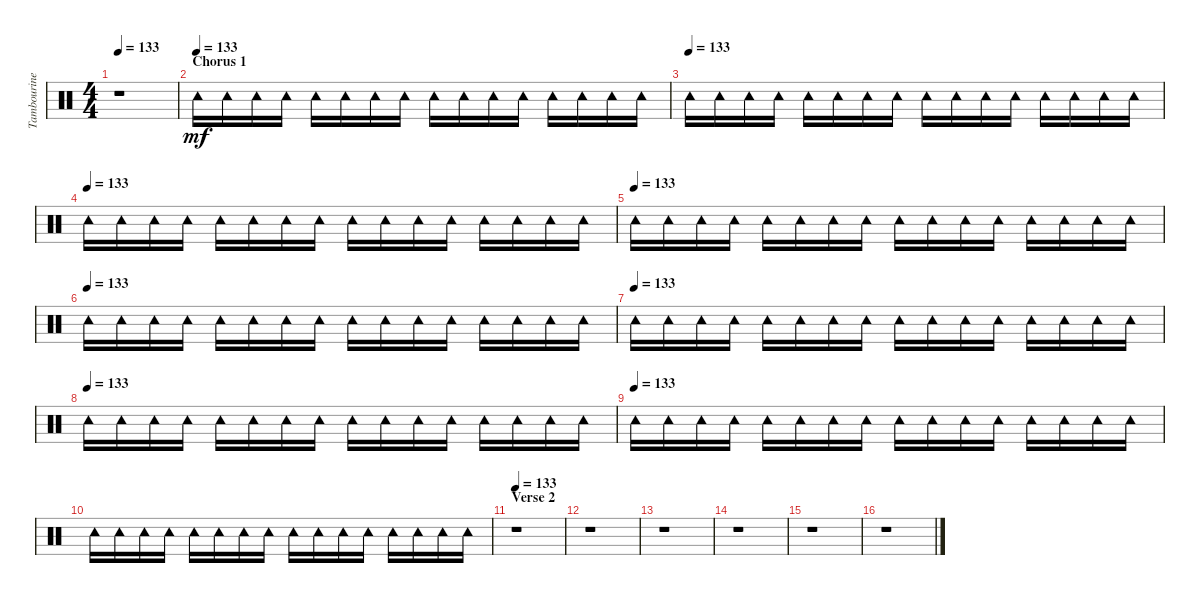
\track ("Tambourine" "Tambourine") {instrument percussion}
\staff {score}
\articulation defaults
\ts (4 4)
\tempo 133
\clef neutral
\ks c
r.1{dy mf} |
\section ("" "Chorus 1")
\tempo (133)
"Tambourine (hit)".16 "Tambourine (hit)".16 "Tambourine (hit)".16 "Tambourine (hit)".16 "Tambourine (hit)".16 "Tambourine (hit)".16 "Tambourine (hit)".16 "Tambourine (hit)".16 "Tambourine (hit)".16 "Tambourine (hit)".16 "Tambourine (hit)".16 "Tambourine (hit)".16 "Tambourine (hit)".16 "Tambourine (hit)".16 "Tambourine (hit)".16 "Tambourine (hit)".16 |
\tempo (133)
"Tambourine (hit)".16 "Tambourine (hit)".16 "Tambourine (hit)".16 "Tambourine (hit)".16 "Tambourine (hit)".16 "Tambourine (hit)".16 "Tambourine (hit)".16 "Tambourine (hit)".16 "Tambourine (hit)".16 "Tambourine (hit)".16 "Tambourine (hit)".16 "Tambourine (hit)".16 "Tambourine (hit)".16 "Tambourine (hit)".16 "Tambourine (hit)".16 "Tambourine (hit)".16 |
\tempo (133)
"Tambourine (hit)".16 "Tambourine (hit)".16 "Tambourine (hit)".16 "Tambourine (hit)".16 "Tambourine (hit)".16 "Tambourine (hit)".16 "Tambourine (hit)".16 "Tambourine (hit)".16 "Tambourine (hit)".16 "Tambourine (hit)".16 "Tambourine (hit)".16 "Tambourine (hit)".16 "Tambourine (hit)".16 "Tambourine (hit)".16 "Tambourine (hit)".16 "Tambourine (hit)".16 |
\tempo (133)
"Tambourine (hit)".16 "Tambourine (hit)".16 "Tambourine (hit)".16 "Tambourine (hit)".16 "Tambourine (hit)".16 "Tambourine (hit)".16 "Tambourine (hit)".16 "Tambourine (hit)".16 "Tambourine (hit)".16 "Tambourine (hit)".16 "Tambourine (hit)".16 "Tambourine (hit)".16 "Tambourine (hit)".16 "Tambourine (hit)".16 "Tambourine (hit)".16 "Tambourine (hit)".16 |
\tempo (133)
"Tambourine (hit)".16 "Tambourine (hit)".16 "Tambourine (hit)".16 "Tambourine (hit)".16 "Tambourine (hit)".16 "Tambourine (hit)".16 "Tambourine (hit)".16 "Tambourine (hit)".16 "Tambourine (hit)".16 "Tambourine (hit)".16 "Tambourine (hit)".16 "Tambourine (hit)".16 "Tambourine (hit)".16 "Tambourine (hit)".16 "Tambourine (hit)".16 "Tambourine (hit)".16 |
\tempo (133)
"Tambourine (hit)".16 "Tambourine (hit)".16 "Tambourine (hit)".16 "Tambourine (hit)".16 "Tambourine (hit)".16 "Tambourine (hit)".16 "Tambourine (hit)".16 "Tambourine (hit)".16 "Tambourine (hit)".16 "Tambourine (hit)".16 "Tambourine (hit)".16 "Tambourine (hit)".16 "Tambourine (hit)".16 "Tambourine (hit)".16 "Tambourine (hit)".16 "Tambourine (hit)".16 |
\tempo (133)
"Tambourine (hit)".16 "Tambourine (hit)".16 "Tambourine (hit)".16 "Tambourine (hit)".16 "Tambourine (hit)".16 "Tambourine (hit)".16 "Tambourine (hit)".16 "Tambourine (hit)".16 "Tambourine (hit)".16 "Tambourine (hit)".16 "Tambourine (hit)".16 "Tambourine (hit)".16 "Tambourine (hit)".16 "Tambourine (hit)".16 "Tambourine (hit)".16 "Tambourine (hit)".16 |
\tempo (133)
"Tambourine (hit)".16 "Tambourine (hit)".16 "Tambourine (hit)".16 "Tambourine (hit)".16 "Tambourine (hit)".16 "Tambourine (hit)".16 "Tambourine (hit)".16 "Tambourine (hit)".16 "Tambourine (hit)".16 "Tambourine (hit)".16 "Tambourine (hit)".16 "Tambourine (hit)".16 "Tambourine (hit)".16 "Tambourine (hit)".16 "Tambourine (hit)".16 "Tambourine (hit)".16 |
"Tambourine (hit)".16 "Tambourine (hit)".16 "Tambourine (hit)".16 "Tambourine (hit)".16 "Tambourine (hit)".16 "Tambourine (hit)".16 "Tambourine (hit)".16 "Tambourine (hit)".16 "Tambourine (hit)".16 "Tambourine (hit)".16 "Tambourine (hit)".16 "Tambourine (hit)".16 "Tambourine (hit)".16 "Tambourine (hit)".16 "Tambourine (hit)".16 "Tambourine (hit)".16 |
\section ("" "Verse 2")
\tempo 133
r.1 |
r.1 |
r.1 |
r.1 |
r.1 |
r.1
